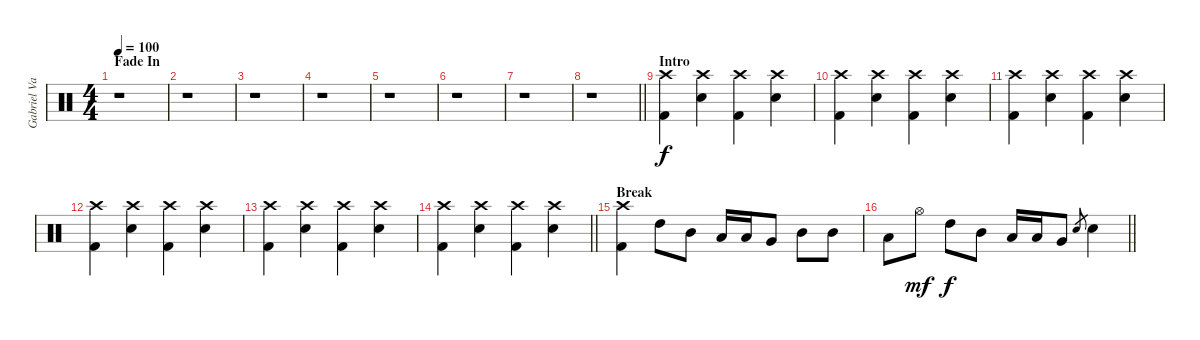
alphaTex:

\track ("Gabriel Valerio" "Gabriel Va") {instrument percussion}
\staff {score}
\articulation defaults
\ts (4 4)
\section ("" "Fade In")
\tempo 100
\clef neutral
\ks c
r.1{dy f} |
r.1 |
r.1 |
r.1 |
r.1 |
r.1 |
r.1 |
\barLineRight lightlight
r.1 |
\section ("" "Intro")
("Crash high (hit)" "Kick (hit) 2").4 ("Crash high (hit)" "Snare (hit) 2").4 ("Crash high (hit)" "Kick (hit) 2").4 ("Crash high (hit)" "Snare (hit) 2").4 |
("Crash high (hit)" "Kick (hit) 2").4 ("Crash high (hit)" "Snare (hit) 2").4 ("Crash high (hit)" "Kick (hit) 2").4 ("Crash high (hit)" "Snare (hit) 2").4 |
("Crash high (hit)" "Kick (hit) 2").4 ("Crash high (hit)" "Snare (hit) 2").4 ("Crash high (hit)" "Kick (hit) 2").4 ("Crash high (hit)" "Snare (hit) 2").4 |
("Crash high (hit)" "Kick (hit) 2").4 ("Crash high (hit)" "Snare (hit) 2").4 ("Crash high (hit)" "Kick (hit) 2").4 ("Crash high (hit)" "Snare (hit) 2").4 |
("Crash high (hit)" "Kick (hit) 2").4 ("Crash high (hit)" "Snare (hit) 2").4 ("Crash high (hit)" "Kick (hit) 2").4 ("Crash high (hit)" "Snare (hit) 2").4 |
\barLineRight lightlight
("Crash high (hit)" "Kick (hit) 2").4 ("Crash high (hit)" "Snare (hit) 2").4 ("Crash high (hit)" "Kick (hit) 2").4 ("Crash high (hit)" "Snare (hit) 2").4 |
\section ("" "Break")
("Crash high (hit)" "Kick (hit) 2").4 "High Tom (hit)".8 "Mid Tom (hit)".8 "Low Tom (hit)".16 "Low Tom (hit)".16 "Very Low Tom (hit)".8 "Mid Tom (hit)".8 "Mid Tom (hit)".8 |
\barLineRight lightlight "Low Tom (hit)".8 "Hi-Hat (open)".8{dy mf} "High Tom (hit)".8{dy f} "Mid Tom (hit)".8 "Low Tom (hit)".16 "Low Tom (hit)".16 "Very Low Tom (hit)".8 "Snare (hit) 2".8{gr} "Snare (hit) 2".4
